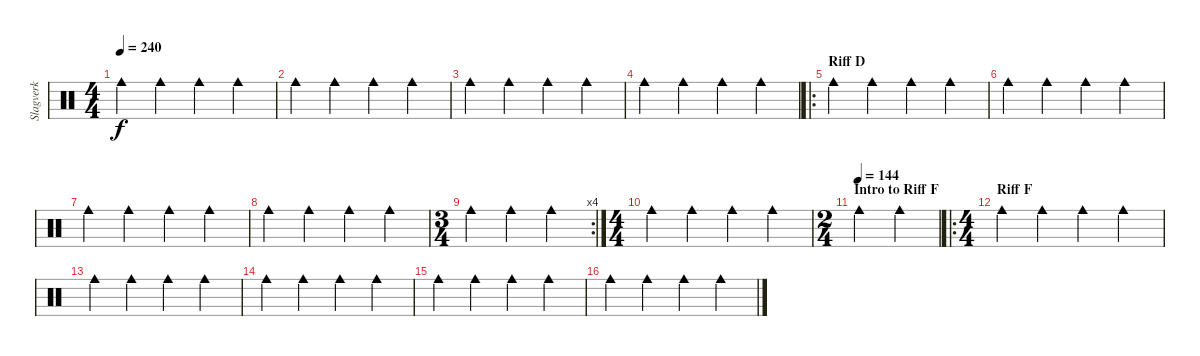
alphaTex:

\track ("Slagverk" "Slagverk") {instrument percussion}
\staff {score}
\articulation defaults
\ts (4 4)
\tempo 240
\clef neutral
\ks c "Cowbell medium (hit)".4{dy f} "Cowbell medium (hit)".4 "Cowbell medium (hit)".4 "Cowbell medium (hit)".4
|
"Cowbell medium (hit)".4 "Cowbell medium (hit)".4 "Cowbell medium (hit)".4 "Cowbell medium (hit)".4 |
"Cowbell medium (hit)".4 "Cowbell medium (hit)".4 "Cowbell medium (hit)".4 "Cowbell medium (hit)".4 |
"Cowbell medium (hit)".4 "Cowbell medium (hit)".4 "Cowbell medium (hit)".4 "Cowbell medium (hit)".4 |
\ro
\section ("" "Riff D")
"Cowbell medium (hit)".4 "Cowbell medium (hit)".4 "Cowbell medium (hit)".4 "Cowbell medium (hit)".4 |
"Cowbell medium (hit)".4 "Cowbell medium (hit)".4 "Cowbell medium (hit)".4 "Cowbell medium (hit)".4 |
"Cowbell medium (hit)".4 "Cowbell medium (hit)".4 "Cowbell medium (hit)".4 "Cowbell medium (hit)".4 |
"Cowbell medium (hit)".4 "Cowbell medium (hit)".4 "Cowbell medium (hit)".4 "Cowbell medium (hit)".4 |
\rc 4
\ts (3 4)
"Cowbell medium (hit)".4 "Cowbell medium (hit)".4 "Cowbell medium (hit)".4 |
\ts (4 4)
"Cowbell medium (hit)".4 "Cowbell medium (hit)".4 "Cowbell medium (hit)".4 "Cowbell medium (hit)".4 |
\ts (2 4)
\section ("" "Intro to Riff F")
\tempo (144)
"Cowbell medium (hit)".4 "Cowbell medium (hit)".4 |
\ro
\ts (4 4)
\section ("" "Riff F")
"Cowbell medium (hit)".4 "Cowbell medium (hit)".4 "Cowbell medium (hit)".4 "Cowbell medium (hit)".4 |
"Cowbell medium (hit)".4 "Cowbell medium (hit)".4 "Cowbell medium (hit)".4 "Cowbell medium (hit)".4 |
"Cowbell medium (hit)".4 "Cowbell medium (hit)".4 "Cowbell medium (hit)".4 "Cowbell medium (hit)".4 |
"Cowbell medium (hit)".4 "Cowbell medium (hit)".4 "Cowbell medium (hit)".4 "Cowbell medium (hit)".4 |
"Cowbell medium (hit)".4 "Cowbell medium (hit)".4 "Cowbell medium (hit)".4 "Cowbell medium (hit)".4
